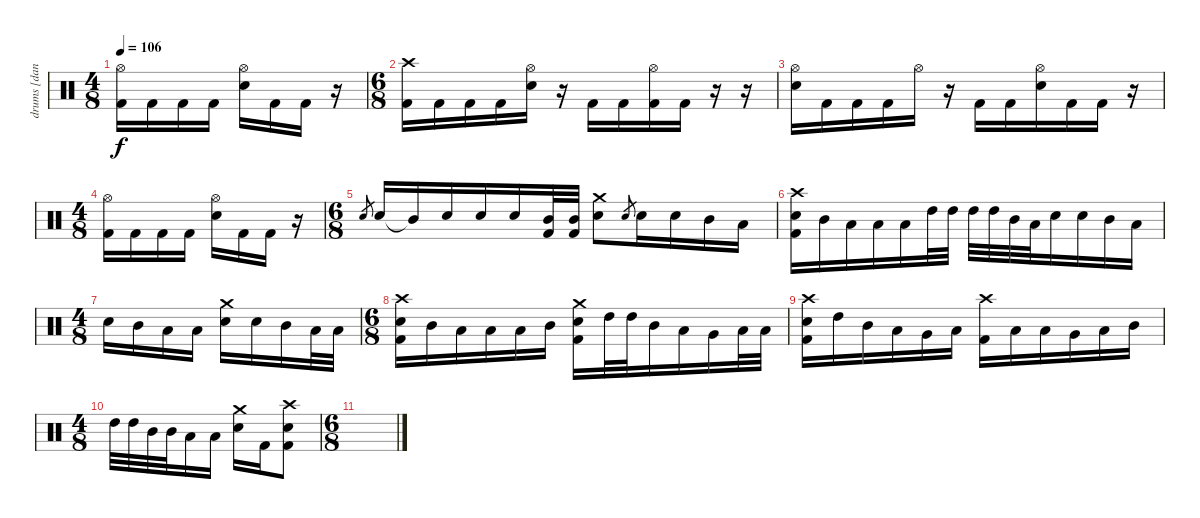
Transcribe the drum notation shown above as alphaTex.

\track ("drums [danny carey]" "drums [dan") {instrument percussion}
\staff {score}
\articulation defaults
\ts (4 8)
\tempo 106
\clef neutral
\ks c
("Hi-Hat (open)" "Kick (hit) 2").16{dy f} "Kick (hit) 2".16 "Kick (hit) 2".16 "Kick (hit) 2".16 ("Hi-Hat (open)" "Electric Snare (hit)").16 "Kick (hit) 2".16 "Kick (hit) 2".16 r.16 |
\ts (6 8)
("Crash high (hit)" "Kick (hit) 2").16 "Kick (hit) 2".16 "Kick (hit) 2".16 "Kick (hit) 2".16 ("Hi-Hat (open)" "Electric Snare (hit)").16 r.16 "Kick (hit) 2".16 "Kick (hit) 2".16 ("Hi-Hat (open)" "Kick (hit) 2").16 "Kick (hit) 2".16 r.16 r.16 |
("Hi-Hat (open)" "Electric Snare (hit)").16 "Kick (hit) 2".16 "Kick (hit) 2".16 "Kick (hit) 2".16 "Hi-Hat (open)".16 r.16 "Kick (hit) 2".16 "Kick (hit) 2".16 ("Hi-Hat (open)" "Electric Snare (hit)").16 "Kick (hit) 2".16 "Kick (hit) 2".16 r.16 |
\ts (4 8)
("Hi-Hat (open)" "Kick (hit) 2").16 "Kick (hit) 2".16 "Kick (hit) 2".16 "Kick (hit) 2".16 ("Hi-Hat (open)" "Electric Snare (hit)").16 "Kick (hit) 2".16 "Kick (hit) 2".16 r.16 |
\ts (6 8)
"Electric Snare (hit)".8{gr} "Electric Snare (hit)".16 "Mid Tom (hit)"{t}.16 "Electric Snare (hit)".16 "Electric Snare (hit)".16 "Electric Snare (hit)".16 ("Mid Tom (hit)" "Kick (hit) 2").32 ("Mid Tom (hit)" "Kick (hit) 2").32 ("Crash medium (hit)" "Electric Snare (hit)").8 "Electric Snare (hit)".8{gr} "Electric Snare (hit)".16 "Electric Snare (hit)".16 "Mid Tom (hit)".16 "Low Tom (hit)".16 |
("Crash high (hit)" "Electric Snare (hit)" "Kick (hit) 2").16 "Mid Tom (hit)".16 "Low Tom (hit)".16 "Low Tom (hit)".16 "Low Tom (hit)".16 "High Tom (hit)".32 "High Tom (hit)".32 "High Tom (hit)".32 "High Tom (hit)".32 "Mid Tom (hit)".32 "Low Tom (hit)".32 "Electric Snare (hit)".16 "Electric Snare (hit)".16 "Mid Tom (hit)".16 "Low Tom (hit)".16 |
\ts (4 8)
"Electric Snare (hit)".16 "Mid Tom (hit)".16 "Low Tom (hit)".16 "Low Tom (hit)".16 ("Crash medium (hit)" "Electric Snare (hit)").16 "Electric Snare (hit)".16 "Mid Tom (hit)".16 "Low Tom (hit)".32 "Low Tom (hit)".32 |
\ts (6 8)
("Crash high (hit)" "Electric Snare (hit)" "Kick (hit) 2").16 "Mid Tom (hit)".16 "Low Tom (hit)".16 "Low Tom (hit)".16 "Low Tom (hit)".16 "Mid Tom (hit)".16 ("Crash medium (hit)" "Electric Snare (hit)" "Kick (hit) 2").16 "High Tom (hit)".32 "High Tom (hit)".32 "Mid Tom (hit)".16 "Low Tom (hit)".16 "Very Low Tom (hit)".16 "Low Tom (hit)".32 "Low Tom (hit)".32 |
("Crash high (hit)" "Electric Snare (hit)" "Kick (hit) 2").16 "High Tom (hit)".16 "Mid Tom (hit)".16 "Low Tom (hit)".16 "Very Low Tom (hit)".16 "Low Tom (hit)".16 ("Crash high (hit)" "Kick (hit) 2").16 "Low Tom (hit)".16 "Low Tom (hit)".16 "Very Low Tom (hit)".16 "Low Tom (hit)".16 "Mid Tom (hit)".16 |
\ts (4 8)
"High Tom (hit)".32 "High Tom (hit)".32 "Mid Tom (hit)".32 "Mid Tom (hit)".32 "Low Tom (hit)".16 "Low Tom (hit)".16 ("Crash medium (hit)" "Electric Snare (hit)").16 "Kick (hit) 2".16 ("Crash high (hit)" "Electric Snare (hit)" "Kick (hit) 2").8 |
\ts (6 8)
